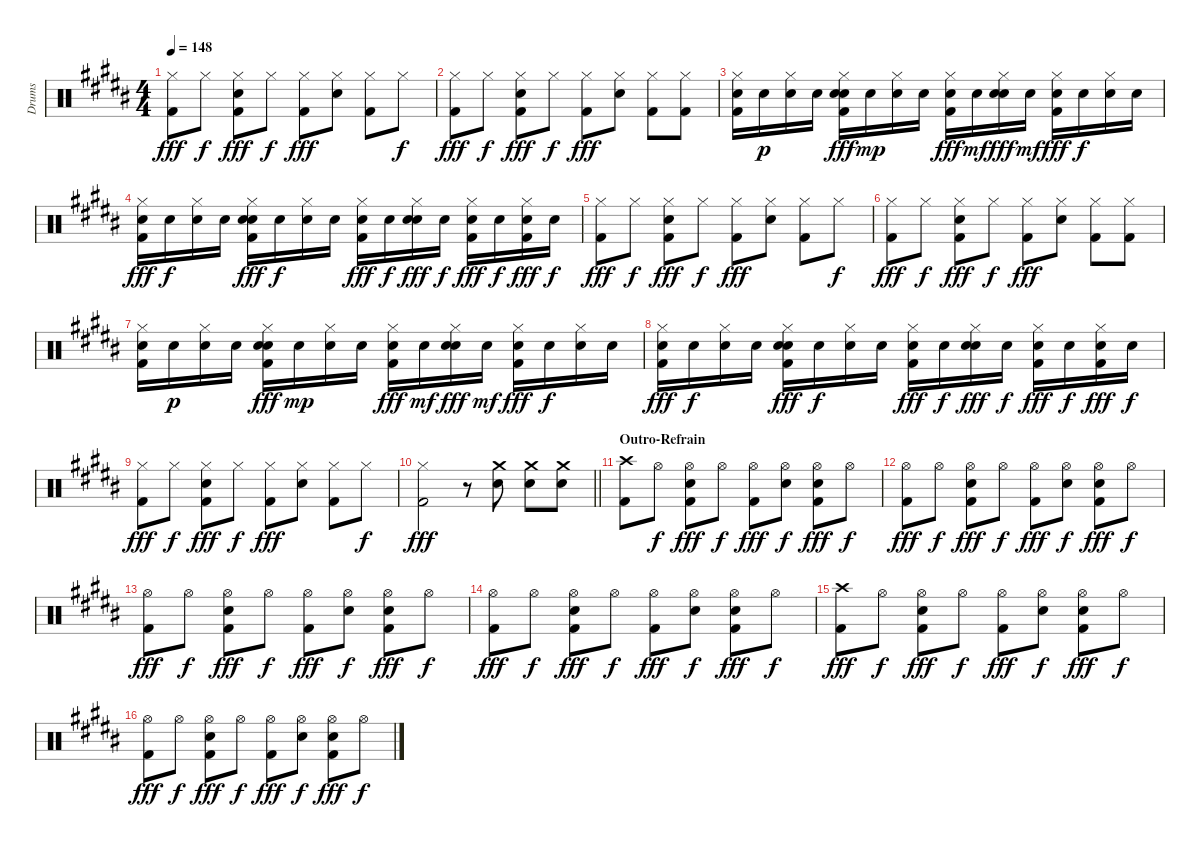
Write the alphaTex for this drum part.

\track ("Drums" "Drums") {instrument percussion}
\staff {score}
\articulation defaults
\ts (4 4)
\tempo 148
\clef neutral
\ks b
("Hi-Hat (closed)" "Kick (hit) 2").8{dy fff} "Hi-Hat (closed)".8{dy f} ("Hi-Hat (closed)" "Electric Snare (hit)" "Kick (hit) 2").8{dy fff} "Hi-Hat (closed)".8{dy f} ("Hi-Hat (closed)" "Kick (hit) 2").8{dy fff} ("Hi-Hat (closed)" "Electric Snare (hit)").8 ("Hi-Hat (closed)" "Kick (hit) 2").8 "Hi-Hat (closed)".8{dy f} |
("Hi-Hat (closed)" "Kick (hit) 2").8{dy fff} "Hi-Hat (closed)".8{dy f} ("Hi-Hat (closed)" "Electric Snare (hit)" "Kick (hit) 2").8{dy fff} "Hi-Hat (closed)".8{dy f} ("Hi-Hat (closed)" "Kick (hit) 2").8{dy fff} ("Hi-Hat (closed)" "Electric Snare (hit)").8 ("Hi-Hat (closed)" "Kick (hit) 2").8 ("Hi-Hat (closed)" "Kick (hit) 2").8 |
("Hi-Hat (closed)" "Electric Snare (hit)" "Kick (hit) 2").16 "Electric Snare (hit)".16{dy p} ("Hi-Hat (closed)" "Electric Snare (hit)").16 "Electric Snare (hit)".16 ("Hi-Hat (closed)" "Electric Snare (hit)" "Electric Snare (hit)" "Kick (hit) 2").16{dy fff} "Electric Snare (hit)".16{dy mp} ("Hi-Hat (closed)" "Electric Snare (hit)").16 "Electric Snare (hit)".16 ("Hi-Hat (closed)" "Electric Snare (hit)" "Kick (hit) 2").16{dy fff} "Electric Snare (hit)".16{dy mf} ("Hi-Hat (closed)" "Electric Snare (hit)" "Electric Snare (hit)").16{dy fff} "Electric Snare (hit)".16{dy mf} ("Hi-Hat (closed)" "Electric Snare (hit)" "Kick (hit) 2").16{dy fff} "Electric Snare (hit)".16{dy f} ("Hi-Hat (closed)" "Electric Snare (hit)").16 "Electric Snare (hit)".16 |
("Hi-Hat (closed)" "Electric Snare (hit)" "Kick (hit) 2").16{dy fff} "Electric Snare (hit)".16{dy f} ("Hi-Hat (closed)" "Electric Snare (hit)").16 "Electric Snare (hit)".16 ("Hi-Hat (closed)" "Electric Snare (hit)" "Electric Snare (hit)" "Kick (hit) 2").16{dy fff} "Electric Snare (hit)".16{dy f} ("Hi-Hat (closed)" "Electric Snare (hit)").16 "Electric Snare (hit)".16 ("Hi-Hat (closed)" "Electric Snare (hit)" "Kick (hit) 2").16{dy fff} "Electric Snare (hit)".16{dy f} ("Hi-Hat (closed)" "Electric Snare (hit)" "Electric Snare (hit)").16{dy fff} "Electric Snare (hit)".16{dy f} ("Hi-Hat (closed)" "Electric Snare (hit)" "Kick (hit) 2").16{dy fff} "Electric Snare (hit)".16{dy f} ("Hi-Hat (closed)" "Electric Snare (hit)" "Kick (hit) 2").16{dy fff} "Electric Snare (hit)".16{dy f} |
("Hi-Hat (closed)" "Kick (hit) 2").8{dy fff} "Hi-Hat (closed)".8{dy f} ("Hi-Hat (closed)" "Electric Snare (hit)" "Kick (hit) 2").8{dy fff} "Hi-Hat (closed)".8{dy f} ("Hi-Hat (closed)" "Kick (hit) 2").8{dy fff} ("Hi-Hat (closed)" "Electric Snare (hit)").8 ("Hi-Hat (closed)" "Kick (hit) 2").8 "Hi-Hat (closed)".8{dy f} |
("Hi-Hat (closed)" "Kick (hit) 2").8{dy fff} "Hi-Hat (closed)".8{dy f} ("Hi-Hat (closed)" "Electric Snare (hit)" "Kick (hit) 2").8{dy fff} "Hi-Hat (closed)".8{dy f} ("Hi-Hat (closed)" "Kick (hit) 2").8{dy fff} ("Hi-Hat (closed)" "Electric Snare (hit)").8 ("Hi-Hat (closed)" "Kick (hit) 2").8 ("Hi-Hat (closed)" "Kick (hit) 2").8 |
("Hi-Hat (closed)" "Electric Snare (hit)" "Kick (hit) 2").16 "Electric Snare (hit)".16{dy p} ("Hi-Hat (closed)" "Electric Snare (hit)").16 "Electric Snare (hit)".16 ("Hi-Hat (closed)" "Electric Snare (hit)" "Electric Snare (hit)" "Kick (hit) 2").16{dy fff} "Electric Snare (hit)".16{dy mp} ("Hi-Hat (closed)" "Electric Snare (hit)").16 "Electric Snare (hit)".16 ("Hi-Hat (closed)" "Electric Snare (hit)" "Kick (hit) 2").16{dy fff} "Electric Snare (hit)".16{dy mf} ("Hi-Hat (closed)" "Electric Snare (hit)" "Electric Snare (hit)").16{dy fff} "Electric Snare (hit)".16{dy mf} ("Hi-Hat (closed)" "Electric Snare (hit)" "Kick (hit) 2").16{dy fff} "Electric Snare (hit)".16{dy f} ("Hi-Hat (closed)" "Electric Snare (hit)").16 "Electric Snare (hit)".16 |
("Hi-Hat (closed)" "Electric Snare (hit)" "Kick (hit) 2").16{dy fff} "Electric Snare (hit)".16{dy f} ("Hi-Hat (closed)" "Electric Snare (hit)").16 "Electric Snare (hit)".16 ("Hi-Hat (closed)" "Electric Snare (hit)" "Electric Snare (hit)" "Kick (hit) 2").16{dy fff} "Electric Snare (hit)".16{dy f} ("Hi-Hat (closed)" "Electric Snare (hit)").16 "Electric Snare (hit)".16 ("Hi-Hat (closed)" "Electric Snare (hit)" "Kick (hit) 2").16{dy fff} "Electric Snare (hit)".16{dy f} ("Hi-Hat (closed)" "Electric Snare (hit)" "Electric Snare (hit)").16{dy fff} "Electric Snare (hit)".16{dy f} ("Hi-Hat (closed)" "Electric Snare (hit)" "Kick (hit) 2").16{dy fff} "Electric Snare (hit)".16{dy f} ("Hi-Hat (closed)" "Electric Snare (hit)" "Kick (hit) 2").16{dy fff} "Electric Snare (hit)".16{dy f} |
("Hi-Hat (closed)" "Kick (hit) 2").8{dy fff} "Hi-Hat (closed)".8{dy f} ("Hi-Hat (closed)" "Electric Snare (hit)" "Kick (hit) 2").8{dy fff} "Hi-Hat (closed)".8{dy f} ("Hi-Hat (closed)" "Kick (hit) 2").8{dy fff} ("Hi-Hat (closed)" "Electric Snare (hit)").8 ("Hi-Hat (closed)" "Kick (hit) 2").8 "Hi-Hat (closed)".8{dy f} |
\barLineRight lightlight
("Hi-Hat (closed)" "Kick (hit) 2").2{dy fff} r.8 ("Crash medium (hit)" "Snare (hit) 2").8 ("Crash medium (hit)" "Snare (hit) 2").8 ("Crash medium (hit)" "Snare (hit) 2").8 |
\section ("" "Outro-Refrain")
("Crash high (hit)" "Kick (hit) 2").8 "Hi-Hat (open)".8{dy f} ("Hi-Hat (open)" "Snare (hit) 2" "Kick (hit) 2").8{dy fff} "Hi-Hat (open)".8{dy f} ("Hi-Hat (open)" "Kick (hit) 2").8{dy fff} ("Hi-Hat (open)" "Electric Snare (hit)").8{dy f} ("Hi-Hat (open)" "Snare (hit) 2" "Kick (hit) 2").8{dy fff} "Hi-Hat (open)".8{dy f} |
("Hi-Hat (open)" "Kick (hit) 2").8{dy fff} "Hi-Hat (open)".8{dy f} ("Hi-Hat (open)" "Snare (hit) 2" "Kick (hit) 2").8{dy fff} "Hi-Hat (open)".8{dy f} ("Hi-Hat (open)" "Kick (hit) 2").8{dy fff} ("Hi-Hat (open)" "Electric Snare (hit)").8{dy f} ("Hi-Hat (open)" "Snare (hit) 2" "Kick (hit) 2").8{dy fff} "Hi-Hat (open)".8{dy f} |
("Hi-Hat (open)" "Kick (hit) 2").8{dy fff} "Hi-Hat (open)".8{dy f} ("Hi-Hat (open)" "Snare (hit) 2" "Kick (hit) 2").8{dy fff} "Hi-Hat (open)".8{dy f} ("Hi-Hat (open)" "Kick (hit) 2").8{dy fff} ("Hi-Hat (open)" "Electric Snare (hit)").8{dy f} ("Hi-Hat (open)" "Snare (hit) 2" "Kick (hit) 2").8{dy fff} "Hi-Hat (open)".8{dy f} |
("Hi-Hat (open)" "Kick (hit) 2").8{dy fff} "Hi-Hat (open)".8{dy f} ("Hi-Hat (open)" "Snare (hit) 2" "Kick (hit) 2").8{dy fff} "Hi-Hat (open)".8{dy f} ("Hi-Hat (open)" "Kick (hit) 2").8{dy fff} ("Hi-Hat (open)" "Electric Snare (hit)").8{dy f} ("Hi-Hat (open)" "Snare (hit) 2" "Kick (hit) 2").8{dy fff} "Hi-Hat (open)".8{dy f} |
("Crash high (hit)" "Kick (hit) 2").8{dy fff} "Hi-Hat (open)".8{dy f} ("Hi-Hat (open)" "Snare (hit) 2" "Kick (hit) 2").8{dy fff} "Hi-Hat (open)".8{dy f} ("Hi-Hat (open)" "Kick (hit) 2").8{dy fff} ("Hi-Hat (open)" "Electric Snare (hit)").8{dy f} ("Hi-Hat (open)" "Snare (hit) 2" "Kick (hit) 2").8{dy fff} "Hi-Hat (open)".8{dy f} |
("Hi-Hat (open)" "Kick (hit) 2").8{dy fff} "Hi-Hat (open)".8{dy f} ("Hi-Hat (open)" "Snare (hit) 2" "Kick (hit) 2").8{dy fff} "Hi-Hat (open)".8{dy f} ("Hi-Hat (open)" "Kick (hit) 2").8{dy fff} ("Hi-Hat (open)" "Electric Snare (hit)").8{dy f} ("Hi-Hat (open)" "Snare (hit) 2" "Kick (hit) 2").8{dy fff} "Hi-Hat (open)".8{dy f}
